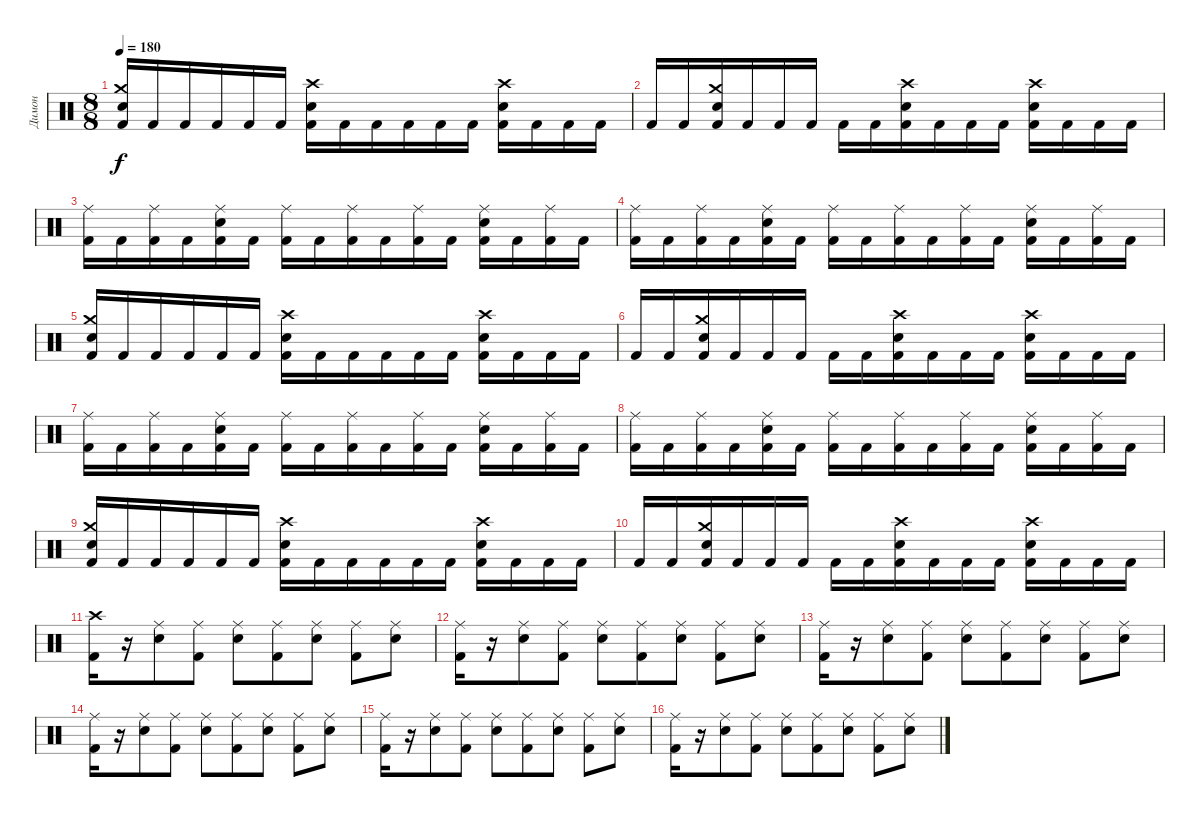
\track ("Димон" "Димон") {instrument percussion}
\staff {score}
\articulation defaults
\ts (8 8)
\tempo 180
\clef neutral
\ks c
("Electric Snare (hit)" "Crash medium (hit)" "Kick (hit) 2").16{dy f} "Kick (hit) 2".16 "Kick (hit) 2".16 "Kick (hit) 2".16 "Kick (hit) 2".16 "Kick (hit) 2".16 ("Crash high (hit)" "Electric Snare (hit)" "Kick (hit) 2").16 "Kick (hit) 2".16 "Kick (hit) 2".16 "Kick (hit) 2".16 "Kick (hit) 2".16 "Kick (hit) 2".16 ("Crash high (hit)" "Electric Snare (hit)" "Kick (hit) 2").16 "Kick (hit) 2".16 "Kick (hit) 2".16 "Kick (hit) 2".16 |
"Kick (hit) 2".16 "Kick (hit) 2".16 ("Crash medium (hit)" "Electric Snare (hit)" "Kick (hit) 2").16 "Kick (hit) 2".16 "Kick (hit) 2".16 "Kick (hit) 2".16 "Kick (hit) 2".16 "Kick (hit) 2".16 ("Crash high (hit)" "Electric Snare (hit)" "Kick (hit) 2").16 "Kick (hit) 2".16 "Kick (hit) 2".16 "Kick (hit) 2".16 ("Crash high (hit)" "Electric Snare (hit)" "Kick (hit) 2").16 "Kick (hit) 2".16 "Kick (hit) 2".16 "Kick (hit) 2".16 |
("Ride (middle)" "Kick (hit) 2").16 "Kick (hit) 2".16 ("Ride (middle)" "Kick (hit) 2").16 "Kick (hit) 2".16 ("Electric Snare (hit)" "Kick (hit) 2" "Ride (middle)").16 "Kick (hit) 2".16 ("Kick (hit) 2" "Ride (middle)").16 "Kick (hit) 2".16 ("Kick (hit) 2" "Ride (middle)").16 "Kick (hit) 2".16 ("Kick (hit) 2" "Ride (middle)").16 "Kick (hit) 2".16 ("Electric Snare (hit)" "Kick (hit) 2" "Ride (middle)").16 "Kick (hit) 2".16 ("Kick (hit) 2" "Ride (middle)").16 "Kick (hit) 2".16 |
("Ride (middle)" "Kick (hit) 2").16 "Kick (hit) 2".16 ("Ride (middle)" "Kick (hit) 2").16 "Kick (hit) 2".16 ("Electric Snare (hit)" "Kick (hit) 2" "Ride (middle)").16 "Kick (hit) 2".16 ("Kick (hit) 2" "Ride (middle)").16 "Kick (hit) 2".16 ("Kick (hit) 2" "Ride (middle)").16 "Kick (hit) 2".16 ("Kick (hit) 2" "Ride (middle)").16 "Kick (hit) 2".16 ("Electric Snare (hit)" "Kick (hit) 2" "Ride (middle)").16 "Kick (hit) 2".16 ("Kick (hit) 2" "Ride (middle)").16 "Kick (hit) 2".16 |
("Electric Snare (hit)" "Crash medium (hit)" "Kick (hit) 2").16 "Kick (hit) 2".16 "Kick (hit) 2".16 "Kick (hit) 2".16 "Kick (hit) 2".16 "Kick (hit) 2".16 ("Crash high (hit)" "Electric Snare (hit)" "Kick (hit) 2").16 "Kick (hit) 2".16 "Kick (hit) 2".16 "Kick (hit) 2".16 "Kick (hit) 2".16 "Kick (hit) 2".16 ("Crash high (hit)" "Electric Snare (hit)" "Kick (hit) 2").16 "Kick (hit) 2".16 "Kick (hit) 2".16 "Kick (hit) 2".16 |
"Kick (hit) 2".16 "Kick (hit) 2".16 ("Crash medium (hit)" "Electric Snare (hit)" "Kick (hit) 2").16 "Kick (hit) 2".16 "Kick (hit) 2".16 "Kick (hit) 2".16 "Kick (hit) 2".16 "Kick (hit) 2".16 ("Crash high (hit)" "Electric Snare (hit)" "Kick (hit) 2").16 "Kick (hit) 2".16 "Kick (hit) 2".16 "Kick (hit) 2".16 ("Crash high (hit)" "Electric Snare (hit)" "Kick (hit) 2").16 "Kick (hit) 2".16 "Kick (hit) 2".16 "Kick (hit) 2".16 |
("Ride (middle)" "Kick (hit) 2").16 "Kick (hit) 2".16 ("Ride (middle)" "Kick (hit) 2").16 "Kick (hit) 2".16 ("Electric Snare (hit)" "Kick (hit) 2" "Ride (middle)").16 "Kick (hit) 2".16 ("Kick (hit) 2" "Ride (middle)").16 "Kick (hit) 2".16 ("Kick (hit) 2" "Ride (middle)").16 "Kick (hit) 2".16 ("Kick (hit) 2" "Ride (middle)").16 "Kick (hit) 2".16 ("Electric Snare (hit)" "Kick (hit) 2" "Ride (middle)").16 "Kick (hit) 2".16 ("Kick (hit) 2" "Ride (middle)").16 "Kick (hit) 2".16 |
("Ride (middle)" "Kick (hit) 2").16 "Kick (hit) 2".16 ("Ride (middle)" "Kick (hit) 2").16 "Kick (hit) 2".16 ("Electric Snare (hit)" "Kick (hit) 2" "Ride (middle)").16 "Kick (hit) 2".16 ("Kick (hit) 2" "Ride (middle)").16 "Kick (hit) 2".16 ("Kick (hit) 2" "Ride (middle)").16 "Kick (hit) 2".16 ("Kick (hit) 2" "Ride (middle)").16 "Kick (hit) 2".16 ("Electric Snare (hit)" "Kick (hit) 2" "Ride (middle)").16 "Kick (hit) 2".16 ("Kick (hit) 2" "Ride (middle)").16 "Kick (hit) 2".16 |
("Electric Snare (hit)" "Crash medium (hit)" "Kick (hit) 2").16 "Kick (hit) 2".16 "Kick (hit) 2".16 "Kick (hit) 2".16 "Kick (hit) 2".16 "Kick (hit) 2".16 ("Crash high (hit)" "Electric Snare (hit)" "Kick (hit) 2").16 "Kick (hit) 2".16 "Kick (hit) 2".16 "Kick (hit) 2".16 "Kick (hit) 2".16 "Kick (hit) 2".16 ("Crash high (hit)" "Electric Snare (hit)" "Kick (hit) 2").16 "Kick (hit) 2".16 "Kick (hit) 2".16 "Kick (hit) 2".16 |
"Kick (hit) 2".16 "Kick (hit) 2".16 ("Crash medium (hit)" "Electric Snare (hit)" "Kick (hit) 2").16 "Kick (hit) 2".16 "Kick (hit) 2".16 "Kick (hit) 2".16 "Kick (hit) 2".16 "Kick (hit) 2".16 ("Crash high (hit)" "Electric Snare (hit)" "Kick (hit) 2").16 "Kick (hit) 2".16 "Kick (hit) 2".16 "Kick (hit) 2".16 ("Crash high (hit)" "Electric Snare (hit)" "Kick (hit) 2").16 "Kick (hit) 2".16 "Kick (hit) 2".16 "Kick (hit) 2".16 |
("Crash high (hit)" "Kick (hit) 2").16 r.16 ("Electric Snare (hit)" "Ride (middle)").8 ("Kick (hit) 2" "Ride (middle)").8 ("Electric Snare (hit)" "Ride (middle)").8 ("Kick (hit) 2" "Ride (middle)").8 ("Electric Snare (hit)" "Ride (middle)").8 ("Kick (hit) 2" "Ride (middle)").8 ("Electric Snare (hit)" "Ride (middle)").8 |
("Ride (middle)" "Kick (hit) 2").16 r.16 ("Electric Snare (hit)" "Ride (middle)").8 ("Kick (hit) 2" "Ride (middle)").8 ("Electric Snare (hit)" "Ride (middle)").8 ("Kick (hit) 2" "Ride (middle)").8 ("Electric Snare (hit)" "Ride (middle)").8 ("Kick (hit) 2" "Ride (middle)").8 ("Electric Snare (hit)" "Ride (middle)").8 |
("Ride (middle)" "Kick (hit) 2").16 r.16 ("Electric Snare (hit)" "Ride (middle)").8 ("Kick (hit) 2" "Ride (middle)").8 ("Electric Snare (hit)" "Ride (middle)").8 ("Kick (hit) 2" "Ride (middle)").8 ("Electric Snare (hit)" "Ride (middle)").8 ("Kick (hit) 2" "Ride (middle)").8 ("Electric Snare (hit)" "Ride (middle)").8 |
("Ride (middle)" "Kick (hit) 2").16 r.16 ("Electric Snare (hit)" "Ride (middle)").8 ("Kick (hit) 2" "Ride (middle)").8 ("Electric Snare (hit)" "Ride (middle)").8 ("Kick (hit) 2" "Ride (middle)").8 ("Electric Snare (hit)" "Ride (middle)").8 ("Kick (hit) 2" "Ride (middle)").8 ("Electric Snare (hit)" "Ride (middle)").8 |
("Ride (middle)" "Kick (hit) 2").16 r.16 ("Electric Snare (hit)" "Ride (middle)").8 ("Kick (hit) 2" "Ride (middle)").8 ("Electric Snare (hit)" "Ride (middle)").8 ("Kick (hit) 2" "Ride (middle)").8 ("Electric Snare (hit)" "Ride (middle)").8 ("Kick (hit) 2" "Ride (middle)").8 ("Electric Snare (hit)" "Ride (middle)").8 |
("Ride (middle)" "Kick (hit) 2").16 r.16 ("Electric Snare (hit)" "Ride (middle)").8 ("Kick (hit) 2" "Ride (middle)").8 ("Electric Snare (hit)" "Ride (middle)").8 ("Kick (hit) 2" "Ride (middle)").8 ("Electric Snare (hit)" "Ride (middle)").8 ("Kick (hit) 2" "Ride (middle)").8 ("Electric Snare (hit)" "Ride (middle)").8
